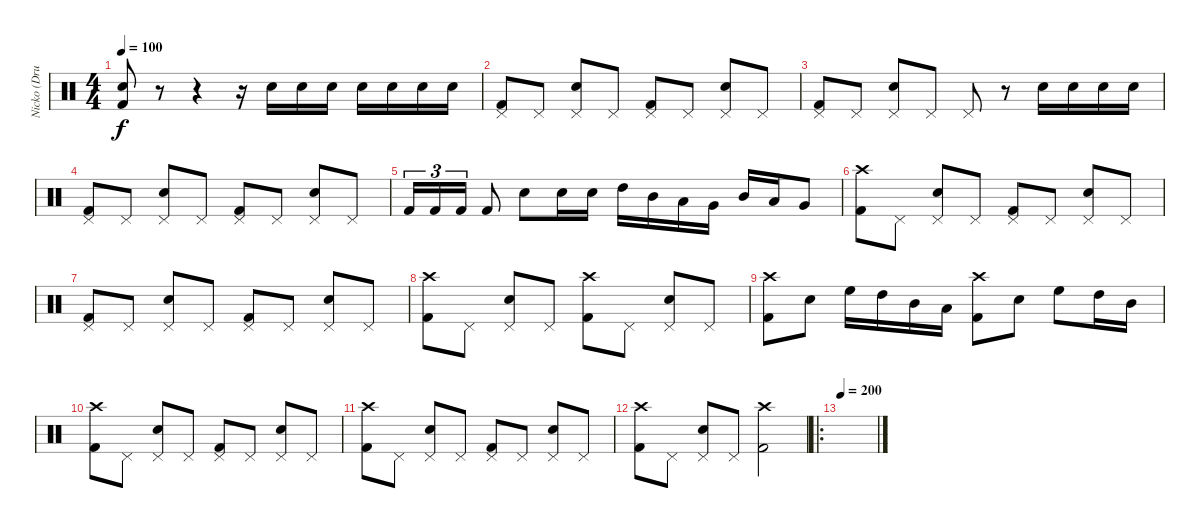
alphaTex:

\track ("Nicko (Drums)" "Nicko (Dru") {instrument percussion}
\staff {score}
\articulation defaults
\ts (4 4)
\tempo 100
\clef neutral
\ks c
("Kick (hit) 2" "Snare (hit) 2").8{dy f} r.8 r.4 r.16 "Snare (hit) 2".16 "Snare (hit) 2".16 "Snare (hit) 2".16 "Snare (hit) 2".16 "Snare (hit) 2".16 "Snare (hit) 2".16 "Snare (hit) 2".16 |
("Pedal Hi-Hat (hit)" "Kick (hit) 2").8 "Pedal Hi-Hat (hit)".8 ("Pedal Hi-Hat (hit)" "Snare (hit) 2").8 "Pedal Hi-Hat (hit)".8 ("Pedal Hi-Hat (hit)" "Kick (hit) 2").8 "Pedal Hi-Hat (hit)".8 ("Pedal Hi-Hat (hit)" "Snare (hit) 2").8 "Pedal Hi-Hat (hit)".8 |
("Pedal Hi-Hat (hit)" "Kick (hit) 2").8 "Pedal Hi-Hat (hit)".8 ("Pedal Hi-Hat (hit)" "Snare (hit) 2").8 "Pedal Hi-Hat (hit)".8 "Pedal Hi-Hat (hit)".8 r.8 "Snare (hit) 2".16 "Snare (hit) 2".16 "Snare (hit) 2".16 "Snare (hit) 2".16 |
("Pedal Hi-Hat (hit)" "Kick (hit) 2").8 "Pedal Hi-Hat (hit)".8 ("Pedal Hi-Hat (hit)" "Snare (hit) 2").8 "Pedal Hi-Hat (hit)".8 ("Pedal Hi-Hat (hit)" "Kick (hit) 2").8 "Pedal Hi-Hat (hit)".8 ("Pedal Hi-Hat (hit)" "Snare (hit) 2").8 "Pedal Hi-Hat (hit)".8 |
"Kick (hit) 2".16{tu (3 2)} "Kick (hit) 2".16{tu (3 2)} "Kick (hit) 2".16{tu (3 2)} "Kick (hit) 2".8 "Snare (hit) 2".8 "Snare (hit) 2".16 "Snare (hit) 2".16 "High Tom (hit)".16 "Mid Tom (hit)".16 "Low Tom (hit)".16 "Very Low Tom (hit)".16 "Mid Tom (hit)".16 "Low Tom (hit)".16 "Very Low Tom (hit)".8 |
("Crash high (hit)" "Kick (hit) 2").8 "Pedal Hi-Hat (hit)".8 ("Pedal Hi-Hat (hit)" "Snare (hit) 2").8 "Pedal Hi-Hat (hit)".8 ("Pedal Hi-Hat (hit)" "Kick (hit) 2").8 "Pedal Hi-Hat (hit)".8 ("Pedal Hi-Hat (hit)" "Snare (hit) 2").8 "Pedal Hi-Hat (hit)".8 |
("Pedal Hi-Hat (hit)" "Kick (hit) 2").8 "Pedal Hi-Hat (hit)".8 ("Pedal Hi-Hat (hit)" "Snare (hit) 2").8 "Pedal Hi-Hat (hit)".8 ("Pedal Hi-Hat (hit)" "Kick (hit) 2").8 "Pedal Hi-Hat (hit)".8 ("Pedal Hi-Hat (hit)" "Snare (hit) 2").8 "Pedal Hi-Hat (hit)".8 |
("Crash high (hit)" "Kick (hit) 2").8 "Pedal Hi-Hat (hit)".8 ("Pedal Hi-Hat (hit)" "Snare (hit) 2").8 "Pedal Hi-Hat (hit)".8 ("Crash high (hit)" "Kick (hit) 2").8 "Pedal Hi-Hat (hit)".8 ("Pedal Hi-Hat (hit)" "Snare (hit) 2").8 "Pedal Hi-Hat (hit)".8 |
("Crash high (hit)" "Kick (hit) 2").8 "Snare (hit) 2".8 "High Floor Tom (hit)".16 "High Tom (hit)".16 "Mid Tom (hit)".16 "Low Tom (hit)".16 ("Crash high (hit)" "Kick (hit) 2").8 "Snare (hit) 2".8 "High Floor Tom (hit)".8 "High Tom (hit)".16 "Mid Tom (hit)".16 |
("Crash high (hit)" "Kick (hit) 2").8 "Pedal Hi-Hat (hit)".8 ("Pedal Hi-Hat (hit)" "Snare (hit) 2").8 "Pedal Hi-Hat (hit)".8 ("Pedal Hi-Hat (hit)" "Kick (hit) 2").8 "Pedal Hi-Hat (hit)".8 ("Pedal Hi-Hat (hit)" "Snare (hit) 2").8 "Pedal Hi-Hat (hit)".8 |
("Crash high (hit)" "Kick (hit) 2").8 "Pedal Hi-Hat (hit)".8 ("Pedal Hi-Hat (hit)" "Snare (hit) 2").8 "Pedal Hi-Hat (hit)".8 ("Pedal Hi-Hat (hit)" "Kick (hit) 2").8 "Pedal Hi-Hat (hit)".8 ("Pedal Hi-Hat (hit)" "Snare (hit) 2").8 "Pedal Hi-Hat (hit)".8 |
("Crash high (hit)" "Kick (hit) 2").8 "Pedal Hi-Hat (hit)".8 ("Pedal Hi-Hat (hit)" "Snare (hit) 2").8 "Pedal Hi-Hat (hit)".8 ("Crash high (hit)" "Kick (hit) 2").2 |
\ro
\tempo 200
